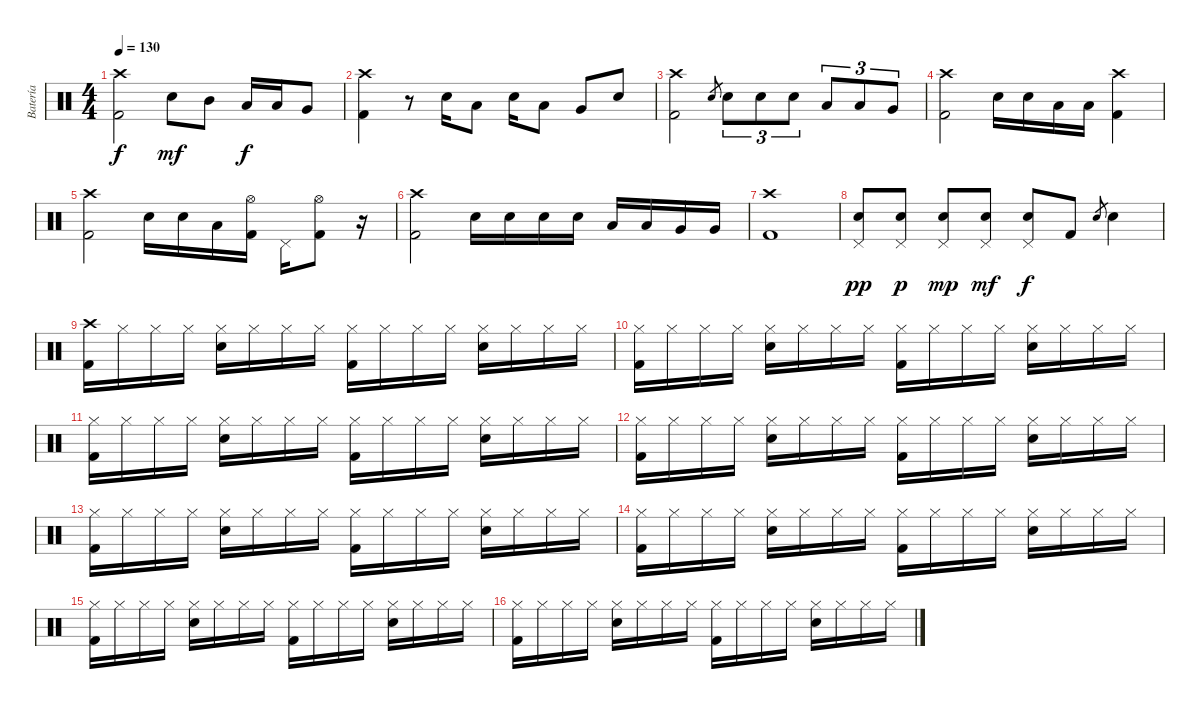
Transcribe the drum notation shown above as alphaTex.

\track ("Batería" "Batería") {instrument percussion}
\staff {score}
\articulation defaults
\ts (4 4)
\tempo 130
\clef neutral
\ks c
("Crash high (hit)" "Kick (hit) 2").2{dy f} "Snare (hit) 2".8{dy mf} "Mid Tom (hit)".8 "Low Tom (hit)".16{dy f} "Low Tom (hit)".16 "Very Low Tom (hit)".8 |
("Crash high (hit)" "Kick (hit) 2").4 r.8 "Snare (hit) 2".16 "Low Tom (hit)".8 "Snare (hit) 2".16 "Low Tom (hit)".8 "Very Low Tom (hit)".8 "Snare (hit) 2".8 |
("Crash high (hit)" "Kick (hit) 2").2 "Snare (hit) 2".8{gr} "Snare (hit) 2".8{tu (3 2)} "Snare (hit) 2".8{tu (3 2)} "Snare (hit) 2".8{tu (3 2)} "Low Tom (hit)".8{tu (3 2)} "Low Tom (hit)".8{tu (3 2)} "Very Low Tom (hit)".8{tu (3 2)} |
("Crash high (hit)" "Kick (hit) 2").2 "Snare (hit) 2".16 "Snare (hit) 2".16 "Low Tom (hit)".16 "Low Tom (hit)".16 ("Crash high (hit)" "Kick (hit) 2").4 |
("Crash high (hit)" "Kick (hit) 2").2 "Snare (hit) 2".16 "Snare (hit) 2".16 "Low Tom (hit)".16 ("Hi-Hat (open)" "Kick (hit) 2").16 "Pedal Hi-Hat (hit)".16 ("Hi-Hat (open)" "Kick (hit) 2").8 r.16 |
("Crash high (hit)" "Kick (hit) 2").2 "Snare (hit) 2".16 "Snare (hit) 2".16 "Snare (hit) 2".16 "Snare (hit) 2".16 "Low Tom (hit)".16 "Low Tom (hit)".16 "Very Low Tom (hit)".16 "Very Low Tom (hit)".16 |
("Crash high (hit)" "Kick (hit) 2").1 |
("Snare (hit) 2" "Pedal Hi-Hat (hit)").8{dy pp} ("Snare (hit) 2" "Pedal Hi-Hat (hit)").8{dy p} ("Snare (hit) 2" "Pedal Hi-Hat (hit)").8{dy mp} ("Snare (hit) 2" "Pedal Hi-Hat (hit)").8{dy mf} ("Snare (hit) 2" "Pedal Hi-Hat (hit)").8{dy f} "Kick (hit) 2".8 "Snare (hit) 2".8{gr} "Snare (hit) 2".4 |
("Crash high (hit)" "Kick (hit) 2").16 "Hi-Hat (closed)".16 "Hi-Hat (closed)".16 "Hi-Hat (closed)".16 ("Hi-Hat (closed)" "Snare (hit) 2").16 "Hi-Hat (closed)".16 "Hi-Hat (closed)".16 "Hi-Hat (closed)".16 ("Hi-Hat (closed)" "Kick (hit) 2").16 "Hi-Hat (closed)".16 "Hi-Hat (closed)".16 "Hi-Hat (closed)".16 ("Hi-Hat (closed)" "Snare (hit) 2").16 "Hi-Hat (closed)".16 "Hi-Hat (closed)".16 "Hi-Hat (closed)".16 |
("Hi-Hat (closed)" "Kick (hit) 2").16 "Hi-Hat (closed)".16 "Hi-Hat (closed)".16 "Hi-Hat (closed)".16 ("Hi-Hat (closed)" "Snare (hit) 2").16 "Hi-Hat (closed)".16 "Hi-Hat (closed)".16 "Hi-Hat (closed)".16 ("Hi-Hat (closed)" "Kick (hit) 2").16 "Hi-Hat (closed)".16 "Hi-Hat (closed)".16 "Hi-Hat (closed)".16 ("Hi-Hat (closed)" "Snare (hit) 2").16 "Hi-Hat (closed)".16 "Hi-Hat (closed)".16 "Hi-Hat (closed)".16 |
("Hi-Hat (closed)" "Kick (hit) 2").16 "Hi-Hat (closed)".16 "Hi-Hat (closed)".16 "Hi-Hat (closed)".16 ("Hi-Hat (closed)" "Snare (hit) 2").16 "Hi-Hat (closed)".16 "Hi-Hat (closed)".16 "Hi-Hat (closed)".16 ("Hi-Hat (closed)" "Kick (hit) 2").16 "Hi-Hat (closed)".16 "Hi-Hat (closed)".16 "Hi-Hat (closed)".16 ("Hi-Hat (closed)" "Snare (hit) 2").16 "Hi-Hat (closed)".16 "Hi-Hat (closed)".16 "Hi-Hat (closed)".16 |
("Hi-Hat (closed)" "Kick (hit) 2").16 "Hi-Hat (closed)".16 "Hi-Hat (closed)".16 "Hi-Hat (closed)".16 ("Hi-Hat (closed)" "Snare (hit) 2").16 "Hi-Hat (closed)".16 "Hi-Hat (closed)".16 "Hi-Hat (closed)".16 ("Hi-Hat (closed)" "Kick (hit) 2").16 "Hi-Hat (closed)".16 "Hi-Hat (closed)".16 "Hi-Hat (closed)".16 ("Hi-Hat (closed)" "Snare (hit) 2").16 "Hi-Hat (closed)".16 "Hi-Hat (closed)".16 "Hi-Hat (closed)".16 |
("Hi-Hat (closed)" "Kick (hit) 2").16 "Hi-Hat (closed)".16 "Hi-Hat (closed)".16 "Hi-Hat (closed)".16 ("Hi-Hat (closed)" "Snare (hit) 2").16 "Hi-Hat (closed)".16 "Hi-Hat (closed)".16 "Hi-Hat (closed)".16 ("Hi-Hat (closed)" "Kick (hit) 2").16 "Hi-Hat (closed)".16 "Hi-Hat (closed)".16 "Hi-Hat (closed)".16 ("Hi-Hat (closed)" "Snare (hit) 2").16 "Hi-Hat (closed)".16 "Hi-Hat (closed)".16 "Hi-Hat (closed)".16 |
("Hi-Hat (closed)" "Kick (hit) 2").16 "Hi-Hat (closed)".16 "Hi-Hat (closed)".16 "Hi-Hat (closed)".16 ("Hi-Hat (closed)" "Snare (hit) 2").16 "Hi-Hat (closed)".16 "Hi-Hat (closed)".16 "Hi-Hat (closed)".16 ("Hi-Hat (closed)" "Kick (hit) 2").16 "Hi-Hat (closed)".16 "Hi-Hat (closed)".16 "Hi-Hat (closed)".16 ("Hi-Hat (closed)" "Snare (hit) 2").16 "Hi-Hat (closed)".16 "Hi-Hat (closed)".16 "Hi-Hat (closed)".16 |
("Hi-Hat (closed)" "Kick (hit) 2").16 "Hi-Hat (closed)".16 "Hi-Hat (closed)".16 "Hi-Hat (closed)".16 ("Hi-Hat (closed)" "Snare (hit) 2").16 "Hi-Hat (closed)".16 "Hi-Hat (closed)".16 "Hi-Hat (closed)".16 ("Hi-Hat (closed)" "Kick (hit) 2").16 "Hi-Hat (closed)".16 "Hi-Hat (closed)".16 "Hi-Hat (closed)".16 ("Hi-Hat (closed)" "Snare (hit) 2").16 "Hi-Hat (closed)".16 "Hi-Hat (closed)".16 "Hi-Hat (closed)".16 |
("Hi-Hat (closed)" "Kick (hit) 2").16 "Hi-Hat (closed)".16 "Hi-Hat (closed)".16 "Hi-Hat (closed)".16 ("Hi-Hat (closed)" "Snare (hit) 2").16 "Hi-Hat (closed)".16 "Hi-Hat (closed)".16 "Hi-Hat (closed)".16 ("Hi-Hat (closed)" "Kick (hit) 2").16 "Hi-Hat (closed)".16 "Hi-Hat (closed)".16 "Hi-Hat (closed)".16 ("Hi-Hat (closed)" "Snare (hit) 2").16 "Hi-Hat (closed)".16 "Hi-Hat (closed)".16 "Hi-Hat (closed)".16
